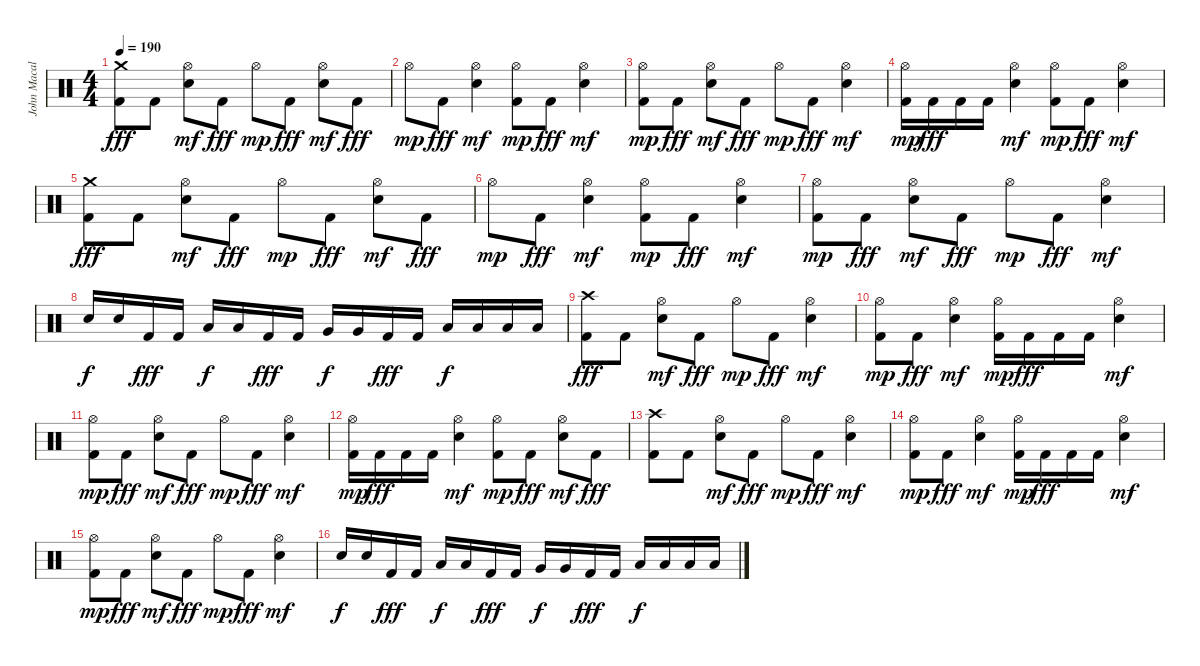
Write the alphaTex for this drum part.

\track ("John Macaluso drums" "John Macal") {instrument percussion}
\staff {score}
\articulation defaults
\ts (4 4)
\tempo 190
\clef neutral
\ks c
("Kick (hit) 2" "Crash medium (hit)").8{dy fff} "Kick (hit) 2".8 ("Snare (hit) 2" "Hi-Hat (open)").8{dy mf} "Kick (hit) 2".8{dy fff} "Hi-Hat (open)".8{dy mp} "Kick (hit) 2".8{dy fff} ("Snare (hit) 2" "Hi-Hat (open)").8{dy mf} "Kick (hit) 2".8{dy fff} |
"Hi-Hat (open)".8{dy mp} "Kick (hit) 2".8{dy fff} ("Snare (hit) 2" "Hi-Hat (open)").4{dy mf} ("Kick (hit) 2" "Hi-Hat (open)").8{dy mp} "Kick (hit) 2".8{dy fff} ("Snare (hit) 2" "Hi-Hat (open)").4{dy mf} |
("Kick (hit) 2" "Hi-Hat (open)").8{dy mp} "Kick (hit) 2".8{dy fff} ("Snare (hit) 2" "Hi-Hat (open)").8{dy mf} "Kick (hit) 2".8{dy fff} "Hi-Hat (open)".8{dy mp} "Kick (hit) 2".8{dy fff} ("Snare (hit) 2" "Hi-Hat (open)").4{dy mf} |
("Kick (hit) 2" "Hi-Hat (open)").16{dy mp} "Kick (hit) 2".16{dy fff} "Kick (hit) 2".16 "Kick (hit) 2".16 ("Snare (hit) 2" "Hi-Hat (open)").4{dy mf} ("Kick (hit) 2" "Hi-Hat (open)").8{dy mp} "Kick (hit) 2".8{dy fff} ("Snare (hit) 2" "Hi-Hat (open)").4{dy mf} |
("Kick (hit) 2" "Crash medium (hit)").8{dy fff} "Kick (hit) 2".8 ("Snare (hit) 2" "Hi-Hat (open)").8{dy mf} "Kick (hit) 2".8{dy fff} "Hi-Hat (open)".8{dy mp} "Kick (hit) 2".8{dy fff} ("Snare (hit) 2" "Hi-Hat (open)").8{dy mf} "Kick (hit) 2".8{dy fff} |
"Hi-Hat (open)".8{dy mp} "Kick (hit) 2".8{dy fff} ("Snare (hit) 2" "Hi-Hat (open)").4{dy mf} ("Kick (hit) 2" "Hi-Hat (open)").8{dy mp} "Kick (hit) 2".8{dy fff} ("Snare (hit) 2" "Hi-Hat (open)").4{dy mf} |
("Kick (hit) 2" "Hi-Hat (open)").8{dy mp} "Kick (hit) 2".8{dy fff} ("Snare (hit) 2" "Hi-Hat (open)").8{dy mf} "Kick (hit) 2".8{dy fff} "Hi-Hat (open)".8{dy mp} "Kick (hit) 2".8{dy fff} ("Snare (hit) 2" "Hi-Hat (open)").4{dy mf} |
"Electric Snare (hit)".16{dy f} "Electric Snare (hit)".16 "Kick (hit) 2".16{dy fff} "Kick (hit) 2".16 "Low Tom (hit)".16{dy f} "Low Tom (hit)".16 "Kick (hit) 2".16{dy fff} "Kick (hit) 2".16 "Very Low Tom (hit)".16{dy f} "Very Low Tom (hit)".16 "Kick (hit) 2".16{dy fff} "Kick (hit) 2".16 "Low Floor Tom (hit)".16{dy f} "Low Floor Tom (hit)".16 "Low Floor Tom (hit)".16 "Low Floor Tom (hit)".16 |
("Kick (hit) 2" "Crash high (hit)").8{dy fff} "Kick (hit) 2".8 ("Snare (hit) 2" "Hi-Hat (open)").8{dy mf} "Kick (hit) 2".8{dy fff} "Hi-Hat (open)".8{dy mp} "Kick (hit) 2".8{dy fff} ("Snare (hit) 2" "Hi-Hat (open)").4{dy mf} |
("Kick (hit) 2" "Hi-Hat (open)").8{dy mp} "Kick (hit) 2".8{dy fff} ("Snare (hit) 2" "Hi-Hat (open)").4{dy mf} ("Kick (hit) 2" "Hi-Hat (open)").16{dy mp} "Kick (hit) 2".16{dy fff} "Kick (hit) 2".16 "Kick (hit) 2".16 ("Snare (hit) 2" "Hi-Hat (open)").4{dy mf} |
("Kick (hit) 2" "Hi-Hat (open)").8{dy mp} "Kick (hit) 2".8{dy fff} ("Snare (hit) 2" "Hi-Hat (open)").8{dy mf} "Kick (hit) 2".8{dy fff} "Hi-Hat (open)".8{dy mp} "Kick (hit) 2".8{dy fff} ("Snare (hit) 2" "Hi-Hat (open)").4{dy mf} |
("Kick (hit) 2" "Hi-Hat (open)").16{dy mp} "Kick (hit) 2".16{dy fff} "Kick (hit) 2".16 "Kick (hit) 2".16 ("Snare (hit) 2" "Hi-Hat (open)").4{dy mf} ("Kick (hit) 2" "Hi-Hat (open)").8{dy mp} "Kick (hit) 2".8{dy fff} ("Snare (hit) 2" "Hi-Hat (open)").8{dy mf} "Kick (hit) 2".8{dy fff} |
("Kick (hit) 2" "Crash high (hit)").8 "Kick (hit) 2".8 ("Snare (hit) 2" "Hi-Hat (open)").8{dy mf} "Kick (hit) 2".8{dy fff} "Hi-Hat (open)".8{dy mp} "Kick (hit) 2".8{dy fff} ("Snare (hit) 2" "Hi-Hat (open)").4{dy mf} |
("Kick (hit) 2" "Hi-Hat (open)").8{dy mp} "Kick (hit) 2".8{dy fff} ("Snare (hit) 2" "Hi-Hat (open)").4{dy mf} ("Kick (hit) 2" "Hi-Hat (open)").16{dy mp} "Kick (hit) 2".16{dy fff} "Kick (hit) 2".16 "Kick (hit) 2".16 ("Snare (hit) 2" "Hi-Hat (open)").4{dy mf} |
("Kick (hit) 2" "Hi-Hat (open)").8{dy mp} "Kick (hit) 2".8{dy fff} ("Snare (hit) 2" "Hi-Hat (open)").8{dy mf} "Kick (hit) 2".8{dy fff} "Hi-Hat (open)".8{dy mp} "Kick (hit) 2".8{dy fff} ("Snare (hit) 2" "Hi-Hat (open)").4{dy mf} |
"Electric Snare (hit)".16{dy f} "Electric Snare (hit)".16 "Kick (hit) 2".16{dy fff} "Kick (hit) 2".16 "Low Tom (hit)".16{dy f} "Low Tom (hit)".16 "Kick (hit) 2".16{dy fff} "Kick (hit) 2".16 "Very Low Tom (hit)".16{dy f} "Very Low Tom (hit)".16 "Kick (hit) 2".16{dy fff} "Kick (hit) 2".16 "Low Floor Tom (hit)".16{dy f} "Low Floor Tom (hit)".16 "Low Floor Tom (hit)".16 "Low Floor Tom (hit)".16
